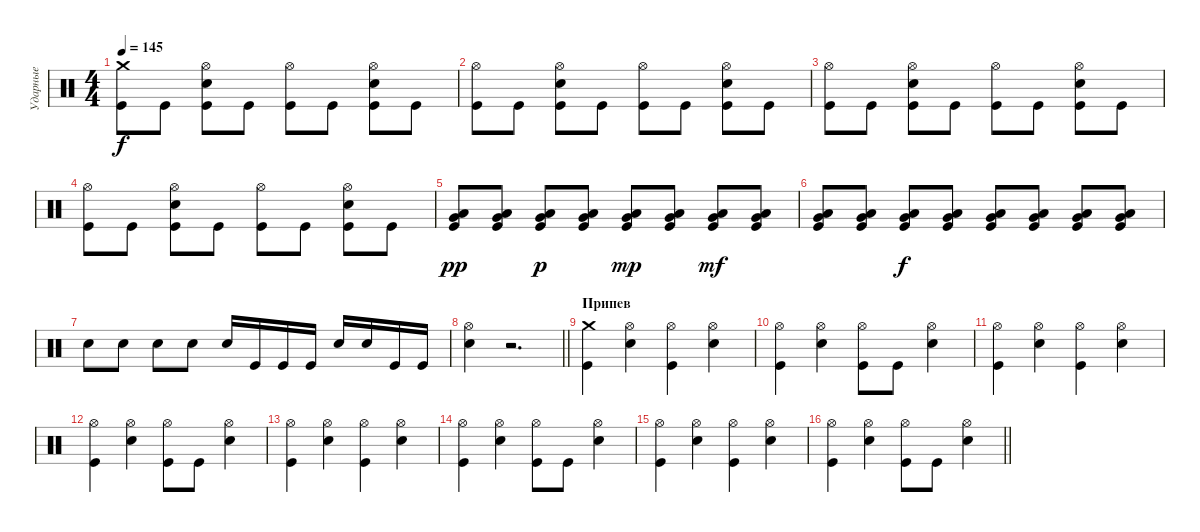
\track ("Ударные" "Ударные") {instrument percussion}
\staff {score}
\articulation defaults
\ts (4 4)
\tempo 145
\clef neutral
\ks c
("Kick (hit)" "Crash medium (hit)").8{dy f} "Kick (hit)".8 ("Kick (hit)" "Snare (hit) 2" "Hi-Hat (open)").8 "Kick (hit)".8 ("Kick (hit)" "Hi-Hat (open)").8 "Kick (hit)".8 ("Kick (hit)" "Snare (hit) 2" "Hi-Hat (open)").8 "Kick (hit)".8 |
("Kick (hit)" "Hi-Hat (open)").8 "Kick (hit)".8 ("Kick (hit)" "Snare (hit) 2" "Hi-Hat (open)").8 "Kick (hit)".8 ("Kick (hit)" "Hi-Hat (open)").8 "Kick (hit)".8 ("Kick (hit)" "Snare (hit) 2" "Hi-Hat (open)").8 "Kick (hit)".8 |
("Kick (hit)" "Hi-Hat (open)").8 "Kick (hit)".8 ("Kick (hit)" "Snare (hit) 2" "Hi-Hat (open)").8 "Kick (hit)".8 ("Kick (hit)" "Hi-Hat (open)").8 "Kick (hit)".8 ("Kick (hit)" "Snare (hit) 2" "Hi-Hat (open)").8 "Kick (hit)".8 |
("Kick (hit)" "Hi-Hat (open)").8 "Kick (hit)".8 ("Kick (hit)" "Snare (hit) 2" "Hi-Hat (open)").8 "Kick (hit)".8 ("Kick (hit)" "Hi-Hat (open)").8 "Kick (hit)".8 ("Kick (hit)" "Snare (hit) 2" "Hi-Hat (open)").8 "Kick (hit)".8 |
("Kick (hit)" "Very Low Tom (hit)" "Low Tom (hit)").8{dy pp} ("Kick (hit)" "Very Low Tom (hit)" "Low Tom (hit)").8 ("Kick (hit)" "Very Low Tom (hit)" "Low Tom (hit)").8{dy p} ("Kick (hit)" "Very Low Tom (hit)" "Low Tom (hit)").8 ("Kick (hit)" "Very Low Tom (hit)" "Low Tom (hit)").8{dy mp} ("Kick (hit)" "Very Low Tom (hit)" "Low Tom (hit)").8 ("Kick (hit)" "Very Low Tom (hit)" "Low Tom (hit)").8{dy mf} ("Kick (hit)" "Very Low Tom (hit)" "Low Tom (hit)").8 |
("Kick (hit)" "Very Low Tom (hit)" "Low Tom (hit)").8 ("Kick (hit)" "Very Low Tom (hit)" "Low Tom (hit)").8 ("Kick (hit)" "Very Low Tom (hit)" "Low Tom (hit)").8{dy f} ("Kick (hit)" "Very Low Tom (hit)" "Low Tom (hit)").8 ("Kick (hit)" "Very Low Tom (hit)" "Low Tom (hit)").8 ("Kick (hit)" "Very Low Tom (hit)" "Low Tom (hit)").8 ("Kick (hit)" "Very Low Tom (hit)" "Low Tom (hit)").8 ("Kick (hit)" "Very Low Tom (hit)" "Low Tom (hit)").8 |
"Snare (hit) 2".8 "Snare (hit) 2".8 "Snare (hit) 2".8 "Snare (hit) 2".8 "Snare (hit) 2".16 "Kick (hit)".16 "Kick (hit)".16 "Kick (hit)".16 "Snare (hit) 2".16 "Snare (hit) 2".16 "Kick (hit)".16 "Kick (hit)".16 |
\barLineRight lightlight
("Snare (hit) 2" "Hi-Hat (open)").4 r.2{d} |
\section ("" "Припев")
("Kick (hit)" "Crash medium (hit)").4 ("Snare (hit) 2" "Hi-Hat (open)").4 ("Kick (hit)" "Hi-Hat (open)").4 ("Snare (hit) 2" "Hi-Hat (open)").4 |
("Kick (hit)" "Hi-Hat (open)").4 ("Snare (hit) 2" "Hi-Hat (open)").4 ("Kick (hit)" "Hi-Hat (open)").8 "Kick (hit)".8 ("Snare (hit) 2" "Hi-Hat (open)").4 |
("Kick (hit)" "Hi-Hat (open)").4 ("Snare (hit) 2" "Hi-Hat (open)").4 ("Kick (hit)" "Hi-Hat (open)").4 ("Snare (hit) 2" "Hi-Hat (open)").4 |
("Kick (hit)" "Hi-Hat (open)").4 ("Snare (hit) 2" "Hi-Hat (open)").4 ("Kick (hit)" "Hi-Hat (open)").8 "Kick (hit)".8 ("Snare (hit) 2" "Hi-Hat (open)").4 |
("Kick (hit)" "Hi-Hat (open)").4 ("Snare (hit) 2" "Hi-Hat (open)").4 ("Kick (hit)" "Hi-Hat (open)").4 ("Snare (hit) 2" "Hi-Hat (open)").4 |
("Kick (hit)" "Hi-Hat (open)").4 ("Snare (hit) 2" "Hi-Hat (open)").4 ("Kick (hit)" "Hi-Hat (open)").8 "Kick (hit)".8 ("Snare (hit) 2" "Hi-Hat (open)").4 |
("Kick (hit)" "Hi-Hat (open)").4 ("Snare (hit) 2" "Hi-Hat (open)").4 ("Kick (hit)" "Hi-Hat (open)").4 ("Snare (hit) 2" "Hi-Hat (open)").4 |
\barLineRight lightlight
("Kick (hit)" "Hi-Hat (open)").4 ("Snare (hit) 2" "Hi-Hat (open)").4 ("Kick (hit)" "Hi-Hat (open)").8 "Kick (hit)".8 ("Snare (hit) 2" "Hi-Hat (open)").4
